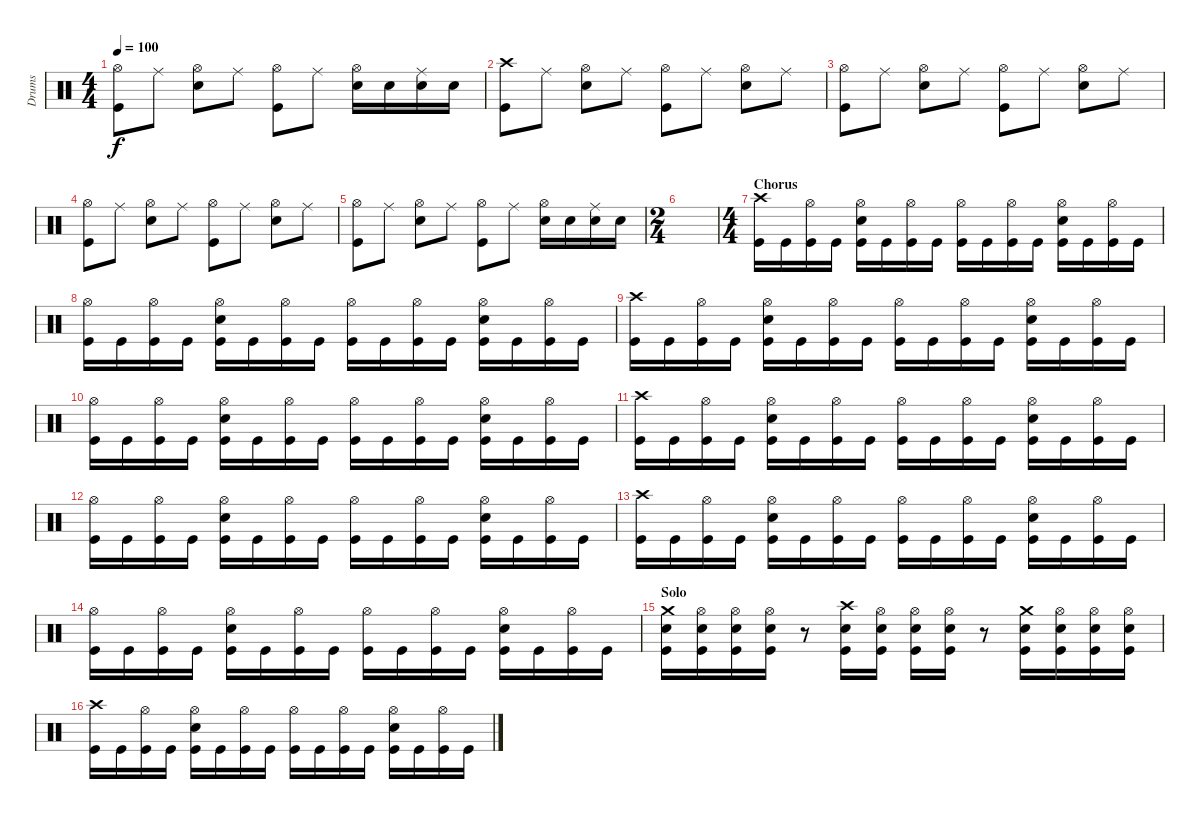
\track ("Drums" "Drums") {instrument percussion}
\staff {score}
\articulation defaults
\ts (4 4)
\tempo 100
\clef neutral
\ks c
("Hi-Hat (open)" "Kick (hit)").8{dy f} "Ride (middle)".8 ("Hi-Hat (open)" "Electric Snare (hit)").8 "Ride (middle)".8 ("Hi-Hat (open)" "Kick (hit)").8 "Ride (middle)".8 ("Hi-Hat (open)" "Electric Snare (hit)").16 "Electric Snare (hit)".16 ("Ride (middle)" "Electric Snare (hit)").16 "Electric Snare (hit)".16 |
("Crash high (hit)" "Kick (hit)").8 "Ride (middle)".8 ("Hi-Hat (open)" "Electric Snare (hit)").8 "Ride (middle)".8 ("Hi-Hat (open)" "Kick (hit)").8 "Ride (middle)".8 ("Hi-Hat (open)" "Electric Snare (hit)").8 "Ride (middle)".8 |
("Hi-Hat (open)" "Kick (hit)").8 "Ride (middle)".8 ("Hi-Hat (open)" "Electric Snare (hit)").8 "Ride (middle)".8 ("Hi-Hat (open)" "Kick (hit)").8 "Ride (middle)".8 ("Hi-Hat (open)" "Electric Snare (hit)").8 "Ride (middle)".8 |
("Hi-Hat (open)" "Kick (hit)").8 "Ride (middle)".8 ("Hi-Hat (open)" "Electric Snare (hit)").8 "Ride (middle)".8 ("Hi-Hat (open)" "Kick (hit)").8 "Ride (middle)".8 ("Hi-Hat (open)" "Electric Snare (hit)").8 "Ride (middle)".8 |
("Hi-Hat (open)" "Kick (hit)").8 "Ride (middle)".8 ("Hi-Hat (open)" "Electric Snare (hit)").8 "Ride (middle)".8 ("Hi-Hat (open)" "Kick (hit)").8 "Ride (middle)".8 ("Hi-Hat (open)" "Electric Snare (hit)").16 "Electric Snare (hit)".16 ("Ride (middle)" "Electric Snare (hit)").16 "Electric Snare (hit)".16 |
\ts (2 4)
|
\ts (4 4)
\section ("" "Chorus")
("Crash high (hit)" "Kick (hit)").16 "Kick (hit)".16 ("Hi-Hat (open)" "Kick (hit)").16 "Kick (hit)".16 ("Hi-Hat (open)" "Electric Snare (hit)" "Kick (hit)").16 "Kick (hit)".16 ("Hi-Hat (open)" "Kick (hit)").16 "Kick (hit)".16 ("Hi-Hat (open)" "Kick (hit)").16 "Kick (hit)".16 ("Hi-Hat (open)" "Kick (hit)").16 "Kick (hit)".16 ("Hi-Hat (open)" "Electric Snare (hit)" "Kick (hit)").16 "Kick (hit)".16 ("Hi-Hat (open)" "Kick (hit)").16 "Kick (hit)".16 |
("Hi-Hat (open)" "Kick (hit)").16 "Kick (hit)".16 ("Hi-Hat (open)" "Kick (hit)").16 "Kick (hit)".16 ("Hi-Hat (open)" "Electric Snare (hit)" "Kick (hit)").16 "Kick (hit)".16 ("Hi-Hat (open)" "Kick (hit)").16 "Kick (hit)".16 ("Hi-Hat (open)" "Kick (hit)").16 "Kick (hit)".16 ("Hi-Hat (open)" "Kick (hit)").16 "Kick (hit)".16 ("Hi-Hat (open)" "Electric Snare (hit)" "Kick (hit)").16 "Kick (hit)".16 ("Hi-Hat (open)" "Kick (hit)").16 "Kick (hit)".16 |
("Crash high (hit)" "Kick (hit)").16 "Kick (hit)".16 ("Hi-Hat (open)" "Kick (hit)").16 "Kick (hit)".16 ("Hi-Hat (open)" "Electric Snare (hit)" "Kick (hit)").16 "Kick (hit)".16 ("Hi-Hat (open)" "Kick (hit)").16 "Kick (hit)".16 ("Hi-Hat (open)" "Kick (hit)").16 "Kick (hit)".16 ("Hi-Hat (open)" "Kick (hit)").16 "Kick (hit)".16 ("Hi-Hat (open)" "Electric Snare (hit)" "Kick (hit)").16 "Kick (hit)".16 ("Hi-Hat (open)" "Kick (hit)").16 "Kick (hit)".16 |
("Hi-Hat (open)" "Kick (hit)").16 "Kick (hit)".16 ("Hi-Hat (open)" "Kick (hit)").16 "Kick (hit)".16 ("Hi-Hat (open)" "Electric Snare (hit)" "Kick (hit)").16 "Kick (hit)".16 ("Hi-Hat (open)" "Kick (hit)").16 "Kick (hit)".16 ("Hi-Hat (open)" "Kick (hit)").16 "Kick (hit)".16 ("Hi-Hat (open)" "Kick (hit)").16 "Kick (hit)".16 ("Hi-Hat (open)" "Electric Snare (hit)" "Kick (hit)").16 "Kick (hit)".16 ("Hi-Hat (open)" "Kick (hit)").16 "Kick (hit)".16 |
("Crash high (hit)" "Kick (hit)").16 "Kick (hit)".16 ("Hi-Hat (open)" "Kick (hit)").16 "Kick (hit)".16 ("Hi-Hat (open)" "Electric Snare (hit)" "Kick (hit)").16 "Kick (hit)".16 ("Hi-Hat (open)" "Kick (hit)").16 "Kick (hit)".16 ("Hi-Hat (open)" "Kick (hit)").16 "Kick (hit)".16 ("Hi-Hat (open)" "Kick (hit)").16 "Kick (hit)".16 ("Hi-Hat (open)" "Electric Snare (hit)" "Kick (hit)").16 "Kick (hit)".16 ("Hi-Hat (open)" "Kick (hit)").16 "Kick (hit)".16 |
("Hi-Hat (open)" "Kick (hit)").16 "Kick (hit)".16 ("Hi-Hat (open)" "Kick (hit)").16 "Kick (hit)".16 ("Hi-Hat (open)" "Electric Snare (hit)" "Kick (hit)").16 "Kick (hit)".16 ("Hi-Hat (open)" "Kick (hit)").16 "Kick (hit)".16 ("Hi-Hat (open)" "Kick (hit)").16 "Kick (hit)".16 ("Hi-Hat (open)" "Kick (hit)").16 "Kick (hit)".16 ("Hi-Hat (open)" "Electric Snare (hit)" "Kick (hit)").16 "Kick (hit)".16 ("Hi-Hat (open)" "Kick (hit)").16 "Kick (hit)".16 |
("Crash high (hit)" "Kick (hit)").16 "Kick (hit)".16 ("Hi-Hat (open)" "Kick (hit)").16 "Kick (hit)".16 ("Hi-Hat (open)" "Electric Snare (hit)" "Kick (hit)").16 "Kick (hit)".16 ("Hi-Hat (open)" "Kick (hit)").16 "Kick (hit)".16 ("Hi-Hat (open)" "Kick (hit)").16 "Kick (hit)".16 ("Hi-Hat (open)" "Kick (hit)").16 "Kick (hit)".16 ("Hi-Hat (open)" "Electric Snare (hit)" "Kick (hit)").16 "Kick (hit)".16 ("Hi-Hat (open)" "Kick (hit)").16 "Kick (hit)".16 |
("Hi-Hat (open)" "Kick (hit)").16 "Kick (hit)".16 ("Hi-Hat (open)" "Kick (hit)").16 "Kick (hit)".16 ("Hi-Hat (open)" "Electric Snare (hit)" "Kick (hit)").16 "Kick (hit)".16 ("Hi-Hat (open)" "Kick (hit)").16 "Kick (hit)".16 ("Hi-Hat (open)" "Kick (hit)").16 "Kick (hit)".16 ("Hi-Hat (open)" "Kick (hit)").16 "Kick (hit)".16 ("Hi-Hat (open)" "Electric Snare (hit)" "Kick (hit)").16 "Kick (hit)".16 ("Hi-Hat (open)" "Kick (hit)").16 "Kick (hit)".16 |
\section ("" "Solo")
("Crash medium (hit)" "Electric Snare (hit)" "Kick (hit)").16 ("Hi-Hat (open)" "Electric Snare (hit)" "Kick (hit)").16 ("Hi-Hat (open)" "Electric Snare (hit)" "Kick (hit)").16 ("Hi-Hat (open)" "Electric Snare (hit)" "Kick (hit)").16 r.8 ("Crash high (hit)" "Electric Snare (hit)" "Kick (hit)").16 ("Hi-Hat (open)" "Electric Snare (hit)" "Kick (hit)").16 ("Hi-Hat (open)" "Electric Snare (hit)" "Kick (hit)").16 ("Hi-Hat (open)" "Electric Snare (hit)" "Kick (hit)").16 r.8 ("Crash medium (hit)" "Electric Snare (hit)" "Kick (hit)").16 ("Hi-Hat (open)" "Electric Snare (hit)" "Kick (hit)").16 ("Hi-Hat (open)" "Electric Snare (hit)" "Kick (hit)").16 ("Hi-Hat (open)" "Electric Snare (hit)" "Kick (hit)").16 |
("Crash high (hit)" "Kick (hit)").16 "Kick (hit)".16 ("Hi-Hat (open)" "Kick (hit)").16 "Kick (hit)".16 ("Hi-Hat (open)" "Electric Snare (hit)" "Kick (hit)").16 "Kick (hit)".16 ("Hi-Hat (open)" "Kick (hit)").16 "Kick (hit)".16 ("Hi-Hat (open)" "Kick (hit)").16 "Kick (hit)".16 ("Hi-Hat (open)" "Kick (hit)").16 "Kick (hit)".16 ("Hi-Hat (open)" "Electric Snare (hit)" "Kick (hit)").16 "Kick (hit)".16 ("Hi-Hat (open)" "Kick (hit)").16 "Kick (hit)".16
